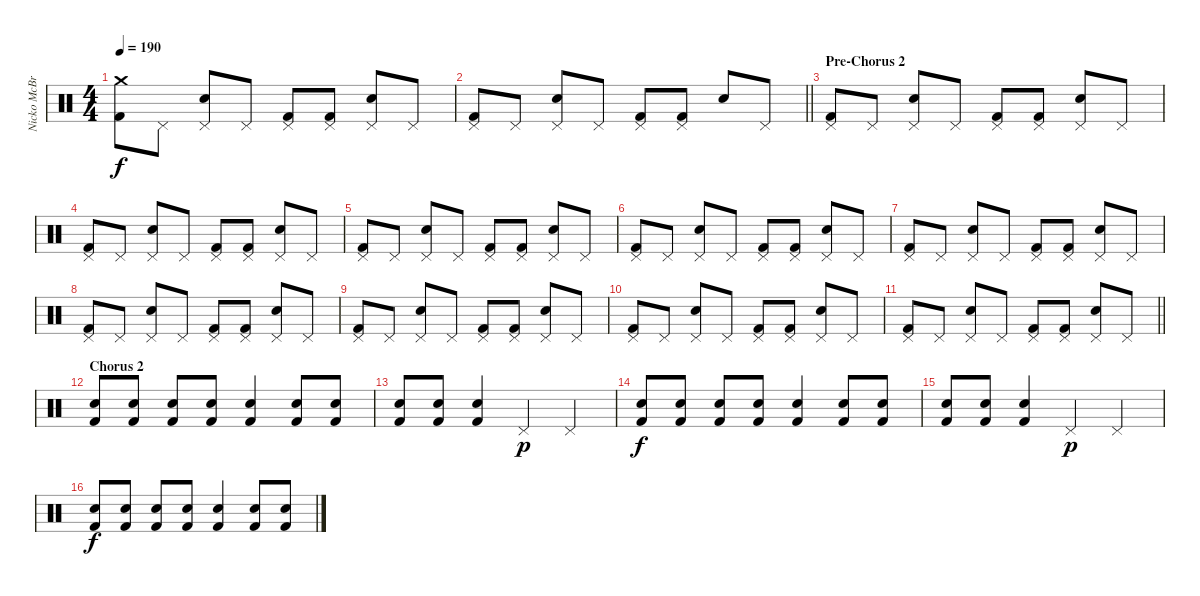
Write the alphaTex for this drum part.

\track ("Nicko McBrain" "Nicko McBr") {instrument percussion}
\staff {score}
\articulation defaults
\ts (4 4)
\tempo 190
\clef neutral
\ks c
("Crash medium (hit)" "Kick (hit) 2").8{dy f} "Pedal Hi-Hat (hit)".8 ("Pedal Hi-Hat (hit)" "Electric Snare (hit)").8 "Pedal Hi-Hat (hit)".8 ("Pedal Hi-Hat (hit)" "Kick (hit) 2").8 ("Pedal Hi-Hat (hit)" "Kick (hit) 2").8 ("Pedal Hi-Hat (hit)" "Electric Snare (hit)").8 "Pedal Hi-Hat (hit)".8 |
\barLineRight lightlight
("Pedal Hi-Hat (hit)" "Kick (hit) 2").8 "Pedal Hi-Hat (hit)".8 ("Pedal Hi-Hat (hit)" "Electric Snare (hit)").8 "Pedal Hi-Hat (hit)".8 ("Pedal Hi-Hat (hit)" "Kick (hit) 2").8 ("Pedal Hi-Hat (hit)" "Kick (hit) 2").8 "Electric Snare (hit)".8 "Pedal Hi-Hat (hit)".8 |
\section ("" "Pre-Chorus 2")
("Pedal Hi-Hat (hit)" "Kick (hit) 2").8 "Pedal Hi-Hat (hit)".8 ("Pedal Hi-Hat (hit)" "Electric Snare (hit)").8 "Pedal Hi-Hat (hit)".8 ("Pedal Hi-Hat (hit)" "Kick (hit) 2").8 ("Pedal Hi-Hat (hit)" "Kick (hit) 2").8 ("Pedal Hi-Hat (hit)" "Electric Snare (hit)").8 "Pedal Hi-Hat (hit)".8 |
("Pedal Hi-Hat (hit)" "Kick (hit) 2").8 "Pedal Hi-Hat (hit)".8 ("Pedal Hi-Hat (hit)" "Electric Snare (hit)").8 "Pedal Hi-Hat (hit)".8 ("Pedal Hi-Hat (hit)" "Kick (hit) 2").8 ("Pedal Hi-Hat (hit)" "Kick (hit) 2").8 ("Pedal Hi-Hat (hit)" "Electric Snare (hit)").8 "Pedal Hi-Hat (hit)".8 |
("Pedal Hi-Hat (hit)" "Kick (hit) 2").8 "Pedal Hi-Hat (hit)".8 ("Pedal Hi-Hat (hit)" "Electric Snare (hit)").8 "Pedal Hi-Hat (hit)".8 ("Pedal Hi-Hat (hit)" "Kick (hit) 2").8 ("Pedal Hi-Hat (hit)" "Kick (hit) 2").8 ("Pedal Hi-Hat (hit)" "Electric Snare (hit)").8 "Pedal Hi-Hat (hit)".8 |
("Pedal Hi-Hat (hit)" "Kick (hit) 2").8 "Pedal Hi-Hat (hit)".8 ("Pedal Hi-Hat (hit)" "Electric Snare (hit)").8 "Pedal Hi-Hat (hit)".8 ("Pedal Hi-Hat (hit)" "Kick (hit) 2").8 ("Pedal Hi-Hat (hit)" "Kick (hit) 2").8 ("Pedal Hi-Hat (hit)" "Electric Snare (hit)").8 "Pedal Hi-Hat (hit)".8 |
("Pedal Hi-Hat (hit)" "Kick (hit) 2").8 "Pedal Hi-Hat (hit)".8 ("Pedal Hi-Hat (hit)" "Electric Snare (hit)").8 "Pedal Hi-Hat (hit)".8 ("Pedal Hi-Hat (hit)" "Kick (hit) 2").8 ("Pedal Hi-Hat (hit)" "Kick (hit) 2").8 ("Pedal Hi-Hat (hit)" "Electric Snare (hit)").8 "Pedal Hi-Hat (hit)".8 |
("Pedal Hi-Hat (hit)" "Kick (hit) 2").8 "Pedal Hi-Hat (hit)".8 ("Pedal Hi-Hat (hit)" "Electric Snare (hit)").8 "Pedal Hi-Hat (hit)".8 ("Pedal Hi-Hat (hit)" "Kick (hit) 2").8 ("Pedal Hi-Hat (hit)" "Kick (hit) 2").8 ("Pedal Hi-Hat (hit)" "Electric Snare (hit)").8 "Pedal Hi-Hat (hit)".8 |
("Pedal Hi-Hat (hit)" "Kick (hit) 2").8 "Pedal Hi-Hat (hit)".8 ("Pedal Hi-Hat (hit)" "Electric Snare (hit)").8 "Pedal Hi-Hat (hit)".8 ("Pedal Hi-Hat (hit)" "Kick (hit) 2").8 ("Pedal Hi-Hat (hit)" "Kick (hit) 2").8 ("Pedal Hi-Hat (hit)" "Electric Snare (hit)").8 "Pedal Hi-Hat (hit)".8 |
("Pedal Hi-Hat (hit)" "Kick (hit) 2").8 "Pedal Hi-Hat (hit)".8 ("Pedal Hi-Hat (hit)" "Electric Snare (hit)").8 "Pedal Hi-Hat (hit)".8 ("Pedal Hi-Hat (hit)" "Kick (hit) 2").8 ("Pedal Hi-Hat (hit)" "Kick (hit) 2").8 ("Pedal Hi-Hat (hit)" "Electric Snare (hit)").8 "Pedal Hi-Hat (hit)".8 |
\barLineRight lightlight
("Pedal Hi-Hat (hit)" "Kick (hit) 2").8 "Pedal Hi-Hat (hit)".8 ("Pedal Hi-Hat (hit)" "Electric Snare (hit)").8 "Pedal Hi-Hat (hit)".8 ("Pedal Hi-Hat (hit)" "Kick (hit) 2").8 ("Pedal Hi-Hat (hit)" "Kick (hit) 2").8 ("Pedal Hi-Hat (hit)" "Electric Snare (hit)").8 "Pedal Hi-Hat (hit)".8 |
\section ("" "Chorus 2")
("Electric Snare (hit)" "Kick (hit) 2").8 ("Electric Snare (hit)" "Kick (hit) 2").8 ("Electric Snare (hit)" "Kick (hit) 2").8 ("Electric Snare (hit)" "Kick (hit) 2").8 ("Electric Snare (hit)" "Kick (hit) 2").4 ("Electric Snare (hit)" "Kick (hit) 2").8 ("Electric Snare (hit)" "Kick (hit) 2").8 |
("Electric Snare (hit)" "Kick (hit) 2").8 ("Electric Snare (hit)" "Kick (hit) 2").8 ("Electric Snare (hit)" "Kick (hit) 2").4 "Pedal Hi-Hat (hit)".4{dy p} "Pedal Hi-Hat (hit)".4 |
("Electric Snare (hit)" "Kick (hit) 2").8{dy f} ("Electric Snare (hit)" "Kick (hit) 2").8 ("Electric Snare (hit)" "Kick (hit) 2").8 ("Electric Snare (hit)" "Kick (hit) 2").8 ("Electric Snare (hit)" "Kick (hit) 2").4 ("Electric Snare (hit)" "Kick (hit) 2").8 ("Electric Snare (hit)" "Kick (hit) 2").8 |
("Electric Snare (hit)" "Kick (hit) 2").8 ("Electric Snare (hit)" "Kick (hit) 2").8 ("Electric Snare (hit)" "Kick (hit) 2").4 "Pedal Hi-Hat (hit)".4{dy p} "Pedal Hi-Hat (hit)".4 |
("Electric Snare (hit)" "Kick (hit) 2").8{dy f} ("Electric Snare (hit)" "Kick (hit) 2").8 ("Electric Snare (hit)" "Kick (hit) 2").8 ("Electric Snare (hit)" "Kick (hit) 2").8 ("Electric Snare (hit)" "Kick (hit) 2").4 ("Electric Snare (hit)" "Kick (hit) 2").8 ("Electric Snare (hit)" "Kick (hit) 2").8
